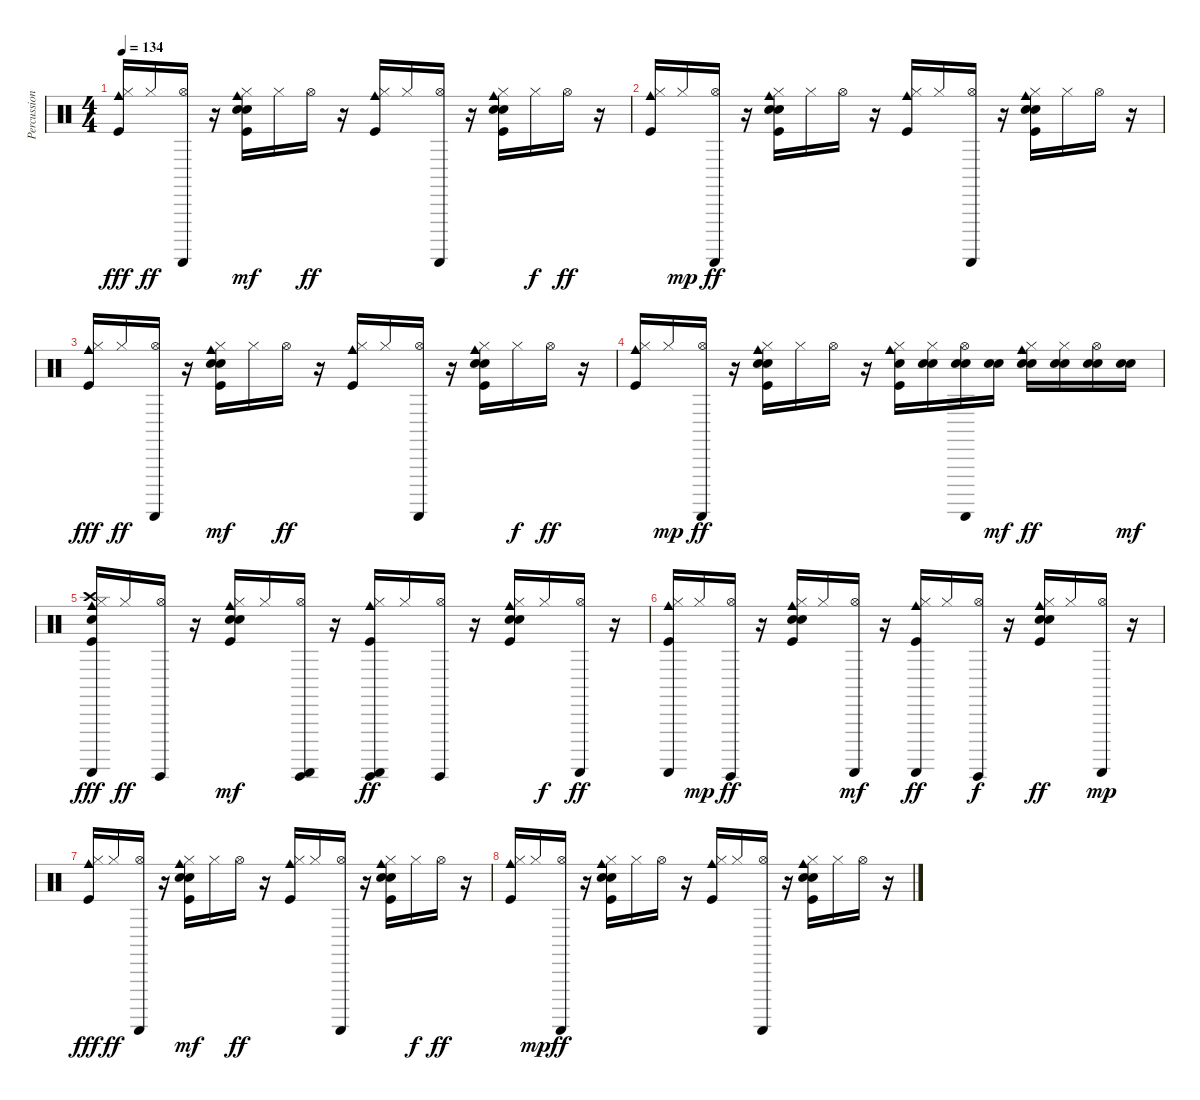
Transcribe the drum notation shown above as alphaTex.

\track ("Percussion" "Percussion") {instrument percussion}
\staff {score}
\articulation defaults
\ts (4 4)
\tempo 134
\clef neutral
\ks c
("Kick (hit)" "Hi-Hat (closed)" "Cowbell medium (hit)").16{dy fff} "Hi-Hat (closed)".16{dy ff} ("Hi-Hat (open)" "Guiro (scrap-return)").16 r.16 ("Kick (hit)" "Hand Clap (hit)" "Electric Snare (hit)" "Hi-Hat (closed)" "Cowbell medium (hit)").16{dy mf} "Hi-Hat (closed)".16 "Hi-Hat (open)".16{dy ff} r.16 ("Kick (hit)" "Hi-Hat (closed)" "Cowbell medium (hit)").16 "Hi-Hat (closed)".16 ("Hi-Hat (open)" "Guiro (scrap-return)").16 r.16 ("Kick (hit)" "Hand Clap (hit)" "Electric Snare (hit)" "Hi-Hat (closed)" "Cowbell medium (hit)").16 "Hi-Hat (closed)".16{dy f} "Hi-Hat (open)".16{dy ff} r.16 |
("Kick (hit)" "Hi-Hat (closed)" "Cowbell medium (hit)").16 "Hi-Hat (closed)".16{dy mp} ("Hi-Hat (open)" "Guiro (scrap-return)").16{dy ff} r.16 ("Kick (hit)" "Hand Clap (hit)" "Electric Snare (hit)" "Hi-Hat (closed)" "Cowbell medium (hit)").16 "Hi-Hat (closed)".16 "Hi-Hat (open)".16 r.16 ("Kick (hit)" "Hi-Hat (closed)" "Cowbell medium (hit)").16 "Hi-Hat (closed)".16 ("Hi-Hat (open)" "Guiro (scrap-return)").16 r.16 ("Kick (hit)" "Hand Clap (hit)" "Electric Snare (hit)" "Hi-Hat (closed)" "Cowbell medium (hit)").16 "Hi-Hat (closed)".16 "Hi-Hat (open)".16 r.16 |
("Kick (hit)" "Hi-Hat (closed)" "Cowbell medium (hit)").16{dy fff} "Hi-Hat (closed)".16{dy ff} ("Hi-Hat (open)" "Guiro (scrap-return)").16 r.16 ("Kick (hit)" "Hand Clap (hit)" "Electric Snare (hit)" "Hi-Hat (closed)" "Cowbell medium (hit)").16{dy mf} "Hi-Hat (closed)".16 "Hi-Hat (open)".16{dy ff} r.16 ("Kick (hit)" "Hi-Hat (closed)" "Cowbell medium (hit)").16 "Hi-Hat (closed)".16 ("Hi-Hat (open)" "Guiro (scrap-return)").16 r.16 ("Kick (hit)" "Hand Clap (hit)" "Electric Snare (hit)" "Hi-Hat (closed)" "Cowbell medium (hit)").16 "Hi-Hat (closed)".16{dy f} "Hi-Hat (open)".16{dy ff} r.16 |
("Kick (hit)" "Hi-Hat (closed)" "Cowbell medium (hit)").16 "Hi-Hat (closed)".16{dy mp} ("Hi-Hat (open)" "Guiro (scrap-return)").16{dy ff} r.16 ("Kick (hit)" "Hand Clap (hit)" "Electric Snare (hit)" "Hi-Hat (closed)" "Cowbell medium (hit)").16 "Hi-Hat (closed)".16 "Hi-Hat (open)".16 r.16 ("Kick (hit)" "Electric Snare (hit)" "Hi-Hat (closed)" "Cowbell medium (hit)").16 ("Electric Snare (hit)" "Electric Snare (hit)" "Hi-Hat (closed)").16 ("Electric Snare (hit)" "Electric Snare (hit)" "Hi-Hat (open)" "Guiro (scrap-return)").16 ("Electric Snare (hit)" "Electric Snare (hit)").16{dy mf} ("Electric Snare (hit)" "Electric Snare (hit)" "Hi-Hat (closed)" "Cowbell medium (hit)").16{dy ff} ("Electric Snare (hit)" "Electric Snare (hit)" "Hi-Hat (closed)").16 ("Electric Snare (hit)" "Electric Snare (hit)" "Hi-Hat (open)").16 ("Electric Snare (hit)" "Electric Snare (hit)").16{dy mf} |
("Electric Snare (hit)" "Kick (hit)" "Hi-Hat (closed)" "Crash high (hit)" "Cowbell medium (hit)" "Guiro (scrap-return)").16{dy fff} "Hi-Hat (closed)".16{dy ff} ("Hi-Hat (open)" "Guiro (hit)").16 r.16 ("Kick (hit)" "Hand Clap (hit)" "Electric Snare (hit)" "Hi-Hat (closed)" "Cowbell medium (hit)").16{dy mf} "Hi-Hat (closed)".16 ("Hi-Hat (open)" "Guiro (hit)" "Guiro (scrap-return)").16 r.16 ("Kick (hit)" "Hi-Hat (closed)" "Cowbell medium (hit)" "Guiro (hit)" "Guiro (scrap-return)").16{dy ff} "Hi-Hat (closed)".16 ("Hi-Hat (open)" "Guiro (hit)").16 r.16 ("Kick (hit)" "Hand Clap (hit)" "Electric Snare (hit)" "Hi-Hat (closed)" "Cowbell medium (hit)").16 "Hi-Hat (closed)".16{dy f} ("Hi-Hat (open)" "Guiro (scrap-return)").16{dy ff} r.16 |
("Kick (hit)" "Hi-Hat (closed)" "Cowbell medium (hit)" "Guiro (scrap-return)").16 "Hi-Hat (closed)".16{dy mp} ("Hi-Hat (open)" "Guiro (hit)").16{dy ff} r.16 ("Kick (hit)" "Hand Clap (hit)" "Electric Snare (hit)" "Hi-Hat (closed)" "Cowbell medium (hit)").16 "Hi-Hat (closed)".16 ("Hi-Hat (open)" "Guiro (scrap-return)").16{dy mf} r.16 ("Kick (hit)" "Hi-Hat (closed)" "Cowbell medium (hit)" "Guiro (scrap-return)").16{dy ff} "Hi-Hat (closed)".16 ("Hi-Hat (open)" "Guiro (hit)").16{dy f} r.16 ("Kick (hit)" "Hand Clap (hit)" "Electric Snare (hit)" "Hi-Hat (closed)" "Cowbell medium (hit)").16{dy ff} "Hi-Hat (closed)".16 ("Hi-Hat (open)" "Guiro (scrap-return)").16{dy mp} r.16 |
("Kick (hit)" "Hi-Hat (closed)" "Cowbell medium (hit)").16{dy fff} "Hi-Hat (closed)".16{dy ff} ("Hi-Hat (open)" "Guiro (scrap-return)").16 r.16 ("Kick (hit)" "Hand Clap (hit)" "Electric Snare (hit)" "Hi-Hat (closed)" "Cowbell medium (hit)").16{dy mf} "Hi-Hat (closed)".16 "Hi-Hat (open)".16{dy ff} r.16 ("Kick (hit)" "Hi-Hat (closed)" "Cowbell medium (hit)").16 "Hi-Hat (closed)".16 ("Hi-Hat (open)" "Guiro (scrap-return)").16 r.16 ("Kick (hit)" "Hand Clap (hit)" "Electric Snare (hit)" "Hi-Hat (closed)" "Cowbell medium (hit)").16 "Hi-Hat (closed)".16{dy f} "Hi-Hat (open)".16{dy ff} r.16 |
("Kick (hit)" "Hi-Hat (closed)" "Cowbell medium (hit)").16 "Hi-Hat (closed)".16{dy mp} ("Hi-Hat (open)" "Guiro (scrap-return)").16{dy ff} r.16 ("Kick (hit)" "Hand Clap (hit)" "Electric Snare (hit)" "Hi-Hat (closed)" "Cowbell medium (hit)").16 "Hi-Hat (closed)".16 "Hi-Hat (open)".16 r.16 ("Kick (hit)" "Hi-Hat (closed)" "Cowbell medium (hit)").16 "Hi-Hat (closed)".16 ("Hi-Hat (open)" "Guiro (scrap-return)").16 r.16 ("Kick (hit)" "Hand Clap (hit)" "Electric Snare (hit)" "Hi-Hat (closed)" "Cowbell medium (hit)").16 "Hi-Hat (closed)".16 "Hi-Hat (open)".16 r.16
